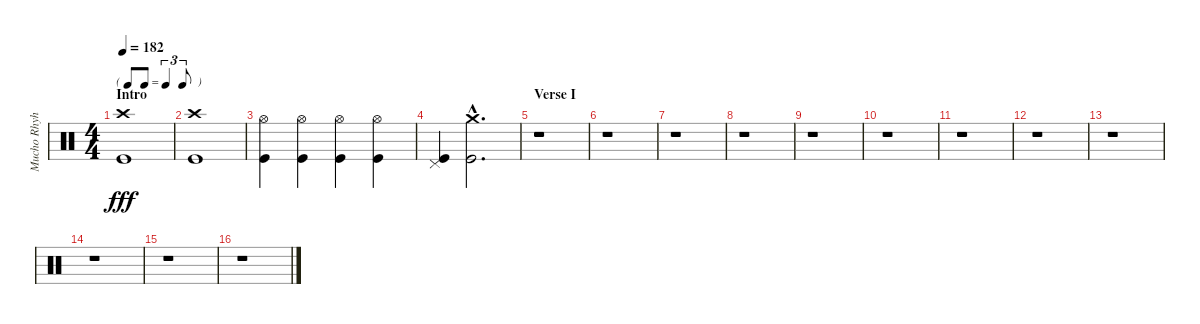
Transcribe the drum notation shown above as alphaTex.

\track ("Mucho Rhyhtm" "Mucho Rhyh") {instrument percussion}
\staff {score}
\articulation defaults
\ts (4 4)
\tf triplet8th
\section ("" "Intro")
\tempo 182
\clef neutral
\ks c
("Crash high (hit)" "Kick (hit)").1{dy fff} |
("Crash high (hit)" "Kick (hit)").1 |
("Hi-Hat (open)" "Kick (hit)").4 ("Hi-Hat (open)" "Kick (hit)").4 ("Hi-Hat (open)" "Kick (hit)").4 ("Hi-Hat (open)" "Kick (hit)").4 |
("Pedal Hi-Hat (hit)" "Kick (hit)").4 ("Crash medium (hit)"{hac} "Kick (hit)"{hac}).2{d} |
\section ("" "Verse I")
r.1 |
r.1 |
r.1 |
r.1 |
r.1 |
r.1 |
r.1 |
r.1 |
r.1 |
r.1 |
r.1 |
r.1
